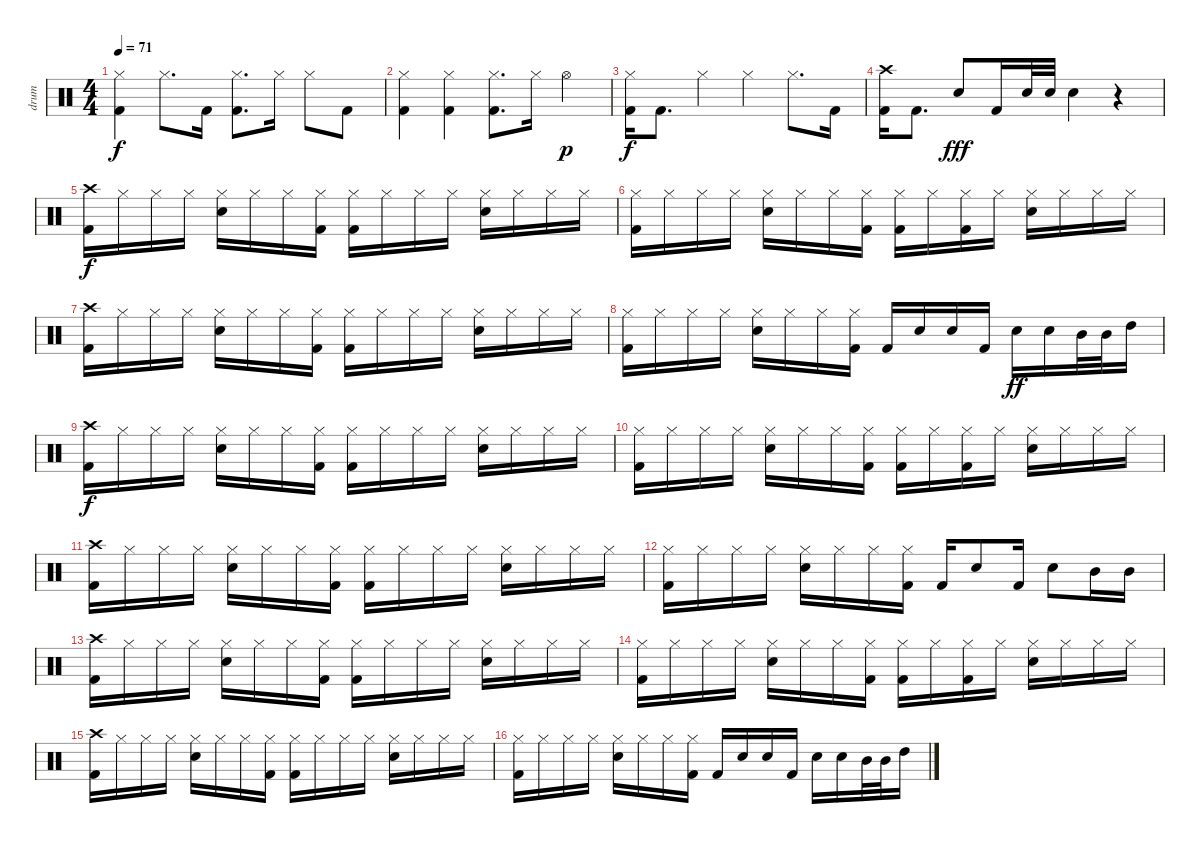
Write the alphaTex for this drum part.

\track ("drum" "drum") {instrument percussion}
\staff {score}
\articulation defaults
\ts (4 4)
\tempo 71
\clef neutral
\ks c
("Hi-Hat (closed)" "Kick (hit) 2").4{dy f} "Hi-Hat (closed)".8{d} "Kick (hit) 2".16 ("Hi-Hat (closed)" "Kick (hit) 2").8{d} "Hi-Hat (closed)".16 "Hi-Hat (closed)".8 "Kick (hit) 2".8 |
("Hi-Hat (closed)" "Kick (hit) 2").4 ("Hi-Hat (closed)" "Kick (hit) 2").4 ("Hi-Hat (closed)" "Kick (hit) 2").8{d} "Hi-Hat (closed)".16 "Hi-Hat (open)".4{dy p} |
("Hi-Hat (closed)" "Kick (hit) 2").16{dy f} "Kick (hit) 2".8{d} "Hi-Hat (closed)".4 "Hi-Hat (closed)".4 "Hi-Hat (closed)".8{d} "Kick (hit) 2".16 |
("Crash high (hit)" "Kick (hit) 2").16 "Kick (hit) 2".8{d} "Electric Snare (hit)".8{dy fff} "Kick (hit) 2".16 "Snare (hit) 2".32 "Snare (hit) 2".32 "Snare (hit) 2".4 r.4 |
("Crash high (hit)" "Kick (hit) 2").16{dy f} "Hi-Hat (closed)".16 "Hi-Hat (closed)".16 "Hi-Hat (closed)".16 ("Hi-Hat (closed)" "Snare (hit) 2").16 "Hi-Hat (closed)".16 "Hi-Hat (closed)".16 ("Hi-Hat (closed)" "Kick (hit) 2").16 ("Hi-Hat (closed)" "Kick (hit) 2").16 "Hi-Hat (closed)".16 "Hi-Hat (closed)".16 "Hi-Hat (closed)".16 ("Hi-Hat (closed)" "Snare (hit) 2").16 "Hi-Hat (closed)".16 "Hi-Hat (closed)".16 "Hi-Hat (closed)".16 |
("Hi-Hat (closed)" "Kick (hit) 2").16 "Hi-Hat (closed)".16 "Hi-Hat (closed)".16 "Hi-Hat (closed)".16 ("Hi-Hat (closed)" "Snare (hit) 2").16 "Hi-Hat (closed)".16 "Hi-Hat (closed)".16 ("Hi-Hat (closed)" "Kick (hit) 2").16 ("Hi-Hat (closed)" "Kick (hit) 2").16 "Hi-Hat (closed)".16 ("Hi-Hat (closed)" "Kick (hit) 2").16 "Hi-Hat (closed)".16 ("Hi-Hat (closed)" "Snare (hit) 2").16 "Hi-Hat (closed)".16 "Hi-Hat (closed)".16 "Hi-Hat (closed)".16 |
("Crash high (hit)" "Kick (hit) 2").16 "Hi-Hat (closed)".16 "Hi-Hat (closed)".16 "Hi-Hat (closed)".16 ("Hi-Hat (closed)" "Snare (hit) 2").16 "Hi-Hat (closed)".16 "Hi-Hat (closed)".16 ("Hi-Hat (closed)" "Kick (hit) 2").16 ("Hi-Hat (closed)" "Kick (hit) 2").16 "Hi-Hat (closed)".16 "Hi-Hat (closed)".16 "Hi-Hat (closed)".16 ("Hi-Hat (closed)" "Snare (hit) 2").16 "Hi-Hat (closed)".16 "Hi-Hat (closed)".16 "Hi-Hat (closed)".16 |
("Hi-Hat (closed)" "Kick (hit) 2").16 "Hi-Hat (closed)".16 "Hi-Hat (closed)".16 "Hi-Hat (closed)".16 ("Hi-Hat (closed)" "Snare (hit) 2").16 "Hi-Hat (closed)".16 "Hi-Hat (closed)".16 ("Hi-Hat (closed)" "Kick (hit) 2").16 "Kick (hit) 2".16 "Snare (hit) 2".16 "Snare (hit) 2".16 "Kick (hit) 2".16 "Snare (hit) 2".16{dy ff} "Snare (hit) 2".16 "Mid Tom (hit)".32 "Mid Tom (hit)".32 "High Tom (hit)".16 |
("Crash high (hit)" "Kick (hit) 2").16{dy f} "Hi-Hat (closed)".16 "Hi-Hat (closed)".16 "Hi-Hat (closed)".16 ("Hi-Hat (closed)" "Snare (hit) 2").16 "Hi-Hat (closed)".16 "Hi-Hat (closed)".16 ("Hi-Hat (closed)" "Kick (hit) 2").16 ("Hi-Hat (closed)" "Kick (hit) 2").16 "Hi-Hat (closed)".16 "Hi-Hat (closed)".16 "Hi-Hat (closed)".16 ("Hi-Hat (closed)" "Snare (hit) 2").16 "Hi-Hat (closed)".16 "Hi-Hat (closed)".16 "Hi-Hat (closed)".16 |
("Hi-Hat (closed)" "Kick (hit) 2").16 "Hi-Hat (closed)".16 "Hi-Hat (closed)".16 "Hi-Hat (closed)".16 ("Hi-Hat (closed)" "Snare (hit) 2").16 "Hi-Hat (closed)".16 "Hi-Hat (closed)".16 ("Hi-Hat (closed)" "Kick (hit) 2").16 ("Hi-Hat (closed)" "Kick (hit) 2").16 "Hi-Hat (closed)".16 ("Hi-Hat (closed)" "Kick (hit) 2").16 "Hi-Hat (closed)".16 ("Hi-Hat (closed)" "Snare (hit) 2").16 "Hi-Hat (closed)".16 "Hi-Hat (closed)".16 "Hi-Hat (closed)".16 |
("Crash high (hit)" "Kick (hit) 2").16 "Hi-Hat (closed)".16 "Hi-Hat (closed)".16 "Hi-Hat (closed)".16 ("Hi-Hat (closed)" "Snare (hit) 2").16 "Hi-Hat (closed)".16 "Hi-Hat (closed)".16 ("Hi-Hat (closed)" "Kick (hit) 2").16 ("Hi-Hat (closed)" "Kick (hit) 2").16 "Hi-Hat (closed)".16 "Hi-Hat (closed)".16 "Hi-Hat (closed)".16 ("Hi-Hat (closed)" "Snare (hit) 2").16 "Hi-Hat (closed)".16 "Hi-Hat (closed)".16 "Hi-Hat (closed)".16 |
("Hi-Hat (closed)" "Kick (hit) 2").16 "Hi-Hat (closed)".16 "Hi-Hat (closed)".16 "Hi-Hat (closed)".16 ("Hi-Hat (closed)" "Snare (hit) 2").16 "Hi-Hat (closed)".16 "Hi-Hat (closed)".16 ("Hi-Hat (closed)" "Kick (hit) 2").16 "Kick (hit) 2".16 "Snare (hit) 2".8 "Kick (hit) 2".16 "Snare (hit) 2".8 "Mid Tom (hit)".16 "Mid Tom (hit)".16 |
("Crash high (hit)" "Kick (hit) 2").16 "Hi-Hat (closed)".16 "Hi-Hat (closed)".16 "Hi-Hat (closed)".16 ("Hi-Hat (closed)" "Snare (hit) 2").16 "Hi-Hat (closed)".16 "Hi-Hat (closed)".16 ("Hi-Hat (closed)" "Kick (hit) 2").16 ("Hi-Hat (closed)" "Kick (hit) 2").16 "Hi-Hat (closed)".16 "Hi-Hat (closed)".16 "Hi-Hat (closed)".16 ("Hi-Hat (closed)" "Snare (hit) 2").16 "Hi-Hat (closed)".16 "Hi-Hat (closed)".16 "Hi-Hat (closed)".16 |
("Hi-Hat (closed)" "Kick (hit) 2").16 "Hi-Hat (closed)".16 "Hi-Hat (closed)".16 "Hi-Hat (closed)".16 ("Hi-Hat (closed)" "Snare (hit) 2").16 "Hi-Hat (closed)".16 "Hi-Hat (closed)".16 ("Hi-Hat (closed)" "Kick (hit) 2").16 ("Hi-Hat (closed)" "Kick (hit) 2").16 "Hi-Hat (closed)".16 ("Hi-Hat (closed)" "Kick (hit) 2").16 "Hi-Hat (closed)".16 ("Hi-Hat (closed)" "Snare (hit) 2").16 "Hi-Hat (closed)".16 "Hi-Hat (closed)".16 "Hi-Hat (closed)".16 |
("Crash high (hit)" "Kick (hit) 2").16 "Hi-Hat (closed)".16 "Hi-Hat (closed)".16 "Hi-Hat (closed)".16 ("Hi-Hat (closed)" "Snare (hit) 2").16 "Hi-Hat (closed)".16 "Hi-Hat (closed)".16 ("Hi-Hat (closed)" "Kick (hit) 2").16 ("Hi-Hat (closed)" "Kick (hit) 2").16 "Hi-Hat (closed)".16 "Hi-Hat (closed)".16 "Hi-Hat (closed)".16 ("Hi-Hat (closed)" "Snare (hit) 2").16 "Hi-Hat (closed)".16 "Hi-Hat (closed)".16 "Hi-Hat (closed)".16 |
("Hi-Hat (closed)" "Kick (hit) 2").16 "Hi-Hat (closed)".16 "Hi-Hat (closed)".16 "Hi-Hat (closed)".16 ("Hi-Hat (closed)" "Snare (hit) 2").16 "Hi-Hat (closed)".16 "Hi-Hat (closed)".16 ("Hi-Hat (closed)" "Kick (hit) 2").16 "Kick (hit) 2".16 "Snare (hit) 2".16 "Snare (hit) 2".16 "Kick (hit) 2".16 "Snare (hit) 2".16 "Snare (hit) 2".16 "Mid Tom (hit)".32 "Mid Tom (hit)".32 "High Tom (hit)".16
